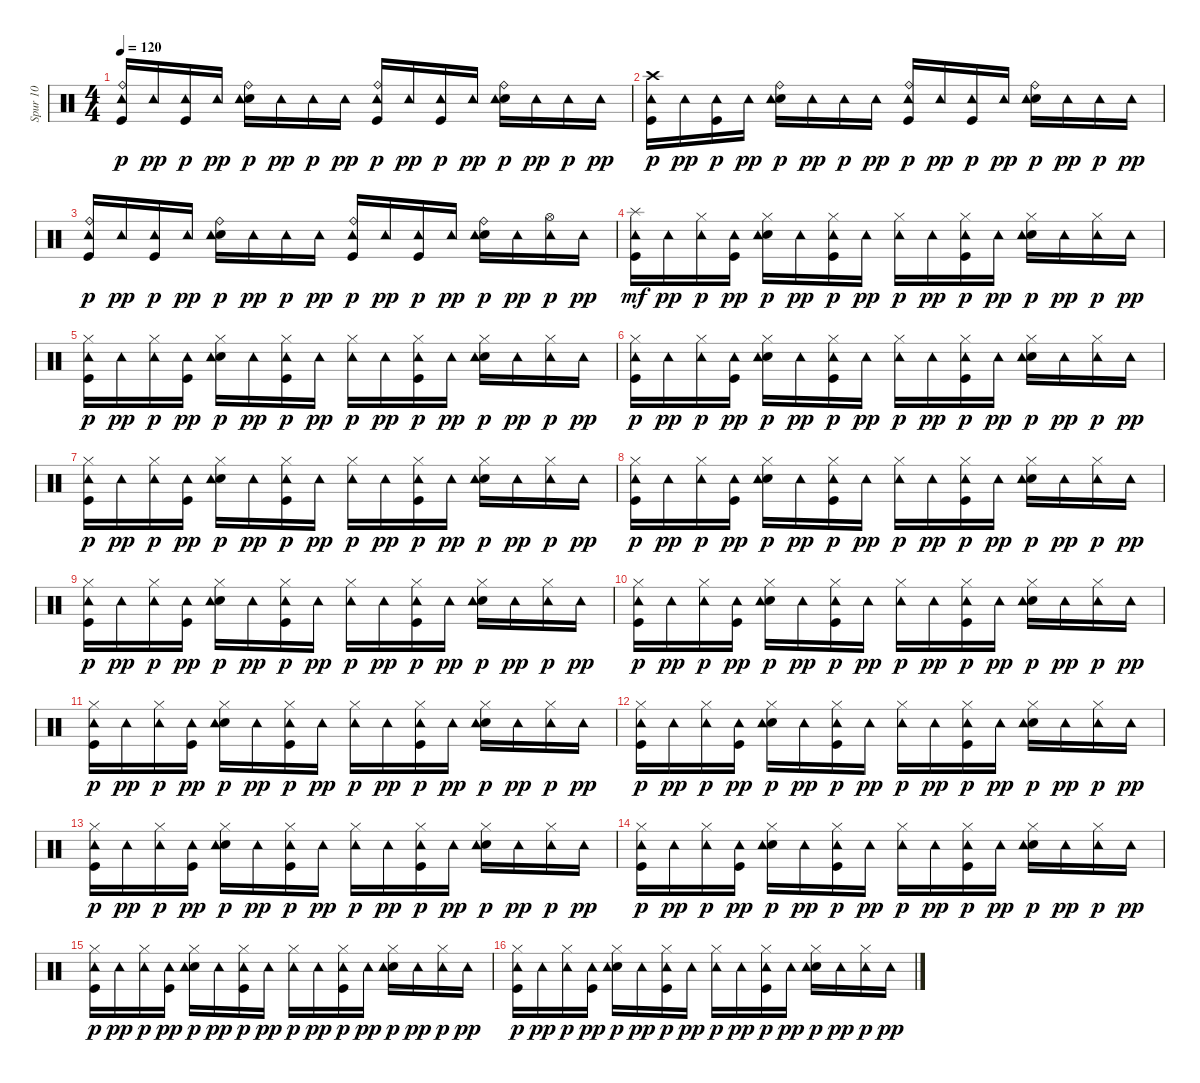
\track ("Spur 10" "Spur 10") {instrument percussion}
\staff {score}
\articulation defaults
\ts (4 4)
\tempo 120
\clef neutral
\ks c
("Kick (hit)" "Ride (bell)" "Tambourine (hit)").16{dy p} "Tambourine (hit)".16{dy pp} ("Kick (hit)" "Tambourine (hit)").16{dy p} "Tambourine (hit)".16{dy pp} ("Electric Snare (hit)" "Ride (bell)" "Tambourine (hit)").16{dy p} "Tambourine (hit)".16{dy pp} "Tambourine (hit)".16{dy p} "Tambourine (hit)".16{dy pp} ("Kick (hit)" "Ride (bell)" "Tambourine (hit)").16{dy p} "Tambourine (hit)".16{dy pp} ("Kick (hit)" "Tambourine (hit)").16{dy p} "Tambourine (hit)".16{dy pp} ("Electric Snare (hit)" "Ride (bell)" "Tambourine (hit)").16{dy p} "Tambourine (hit)".16{dy pp} "Tambourine (hit)".16{dy p} "Tambourine (hit)".16{dy pp} |
("Kick (hit)" "Crash high (hit)" "Tambourine (hit)").16{dy p} "Tambourine (hit)".16{dy pp} ("Kick (hit)" "Tambourine (hit)").16{dy p} "Tambourine (hit)".16{dy pp} ("Electric Snare (hit)" "Ride (bell)" "Tambourine (hit)").16{dy p} "Tambourine (hit)".16{dy pp} "Tambourine (hit)".16{dy p} "Tambourine (hit)".16{dy pp} ("Kick (hit)" "Ride (bell)" "Tambourine (hit)").16{dy p} "Tambourine (hit)".16{dy pp} ("Kick (hit)" "Tambourine (hit)").16{dy p} "Tambourine (hit)".16{dy pp} ("Electric Snare (hit)" "Ride (bell)" "Tambourine (hit)").16{dy p} "Tambourine (hit)".16{dy pp} "Tambourine (hit)".16{dy p} "Tambourine (hit)".16{dy pp} |
("Kick (hit)" "Ride (bell)" "Tambourine (hit)").16{dy p} "Tambourine (hit)".16{dy pp} ("Kick (hit)" "Tambourine (hit)").16{dy p} "Tambourine (hit)".16{dy pp} ("Electric Snare (hit)" "Ride (bell)" "Tambourine (hit)").16{dy p} "Tambourine (hit)".16{dy pp} "Tambourine (hit)".16{dy p} "Tambourine (hit)".16{dy pp} ("Kick (hit)" "Ride (bell)" "Tambourine (hit)").16{dy p} "Tambourine (hit)".16{dy pp} ("Kick (hit)" "Tambourine (hit)").16{dy p} "Tambourine (hit)".16{dy pp} ("Electric Snare (hit)" "Ride (bell)" "Tambourine (hit)").16{dy p} "Tambourine (hit)".16{dy pp} ("Hi-Hat (open)" "Tambourine (hit)").16{dy p} "Tambourine (hit)".16{dy pp} |
("Kick (hit)" "Tambourine (hit)" "Splash (hit)").16{dy mf} "Tambourine (hit)".16{dy pp} ("Hi-Hat (closed)" "Tambourine (hit)").16{dy p} ("Kick (hit)" "Tambourine (hit)").16{dy pp} ("Electric Snare (hit)" "Hi-Hat (closed)" "Tambourine (hit)").16{dy p} "Tambourine (hit)".16{dy pp} ("Kick (hit)" "Hi-Hat (closed)" "Tambourine (hit)").16{dy p} "Tambourine (hit)".16{dy pp} ("Hi-Hat (closed)" "Tambourine (hit)").16{dy p} "Tambourine (hit)".16{dy pp} ("Kick (hit)" "Hi-Hat (closed)" "Tambourine (hit)").16{dy p} "Tambourine (hit)".16{dy pp} ("Electric Snare (hit)" "Hi-Hat (closed)" "Tambourine (hit)").16{dy p} "Tambourine (hit)".16{dy pp} ("Hi-Hat (closed)" "Tambourine (hit)").16{dy p} "Tambourine (hit)".16{dy pp} |
("Kick (hit)" "Hi-Hat (closed)" "Tambourine (hit)").16{dy p} "Tambourine (hit)".16{dy pp} ("Hi-Hat (closed)" "Tambourine (hit)").16{dy p} ("Kick (hit)" "Tambourine (hit)").16{dy pp} ("Electric Snare (hit)" "Hi-Hat (closed)" "Tambourine (hit)").16{dy p} "Tambourine (hit)".16{dy pp} ("Kick (hit)" "Hi-Hat (closed)" "Tambourine (hit)").16{dy p} "Tambourine (hit)".16{dy pp} ("Hi-Hat (closed)" "Tambourine (hit)").16{dy p} "Tambourine (hit)".16{dy pp} ("Kick (hit)" "Hi-Hat (closed)" "Tambourine (hit)").16{dy p} "Tambourine (hit)".16{dy pp} ("Electric Snare (hit)" "Hi-Hat (closed)" "Tambourine (hit)").16{dy p} "Tambourine (hit)".16{dy pp} ("Hi-Hat (closed)" "Tambourine (hit)").16{dy p} "Tambourine (hit)".16{dy pp} |
("Kick (hit)" "Hi-Hat (closed)" "Tambourine (hit)").16{dy p} "Tambourine (hit)".16{dy pp} ("Hi-Hat (closed)" "Tambourine (hit)").16{dy p} ("Kick (hit)" "Tambourine (hit)").16{dy pp} ("Electric Snare (hit)" "Hi-Hat (closed)" "Tambourine (hit)").16{dy p} "Tambourine (hit)".16{dy pp} ("Kick (hit)" "Hi-Hat (closed)" "Tambourine (hit)").16{dy p} "Tambourine (hit)".16{dy pp} ("Hi-Hat (closed)" "Tambourine (hit)").16{dy p} "Tambourine (hit)".16{dy pp} ("Kick (hit)" "Hi-Hat (closed)" "Tambourine (hit)").16{dy p} "Tambourine (hit)".16{dy pp} ("Electric Snare (hit)" "Hi-Hat (closed)" "Tambourine (hit)").16{dy p} "Tambourine (hit)".16{dy pp} ("Hi-Hat (closed)" "Tambourine (hit)").16{dy p} "Tambourine (hit)".16{dy pp} |
("Kick (hit)" "Hi-Hat (closed)" "Tambourine (hit)").16{dy p} "Tambourine (hit)".16{dy pp} ("Hi-Hat (closed)" "Tambourine (hit)").16{dy p} ("Kick (hit)" "Tambourine (hit)").16{dy pp} ("Electric Snare (hit)" "Hi-Hat (closed)" "Tambourine (hit)").16{dy p} "Tambourine (hit)".16{dy pp} ("Kick (hit)" "Hi-Hat (closed)" "Tambourine (hit)").16{dy p} "Tambourine (hit)".16{dy pp} ("Hi-Hat (closed)" "Tambourine (hit)").16{dy p} "Tambourine (hit)".16{dy pp} ("Kick (hit)" "Hi-Hat (closed)" "Tambourine (hit)").16{dy p} "Tambourine (hit)".16{dy pp} ("Electric Snare (hit)" "Hi-Hat (closed)" "Tambourine (hit)").16{dy p} "Tambourine (hit)".16{dy pp} ("Hi-Hat (closed)" "Tambourine (hit)").16{dy p} "Tambourine (hit)".16{dy pp} |
("Kick (hit)" "Hi-Hat (closed)" "Tambourine (hit)").16{dy p} "Tambourine (hit)".16{dy pp} ("Hi-Hat (closed)" "Tambourine (hit)").16{dy p} ("Kick (hit)" "Tambourine (hit)").16{dy pp} ("Electric Snare (hit)" "Hi-Hat (closed)" "Tambourine (hit)").16{dy p} "Tambourine (hit)".16{dy pp} ("Kick (hit)" "Hi-Hat (closed)" "Tambourine (hit)").16{dy p} "Tambourine (hit)".16{dy pp} ("Hi-Hat (closed)" "Tambourine (hit)").16{dy p} "Tambourine (hit)".16{dy pp} ("Kick (hit)" "Hi-Hat (closed)" "Tambourine (hit)").16{dy p} "Tambourine (hit)".16{dy pp} ("Electric Snare (hit)" "Hi-Hat (closed)" "Tambourine (hit)").16{dy p} "Tambourine (hit)".16{dy pp} ("Hi-Hat (closed)" "Tambourine (hit)").16{dy p} "Tambourine (hit)".16{dy pp} |
("Kick (hit)" "Hi-Hat (closed)" "Tambourine (hit)").16{dy p} "Tambourine (hit)".16{dy pp} ("Hi-Hat (closed)" "Tambourine (hit)").16{dy p} ("Kick (hit)" "Tambourine (hit)").16{dy pp} ("Electric Snare (hit)" "Hi-Hat (closed)" "Tambourine (hit)").16{dy p} "Tambourine (hit)".16{dy pp} ("Kick (hit)" "Hi-Hat (closed)" "Tambourine (hit)").16{dy p} "Tambourine (hit)".16{dy pp} ("Hi-Hat (closed)" "Tambourine (hit)").16{dy p} "Tambourine (hit)".16{dy pp} ("Kick (hit)" "Hi-Hat (closed)" "Tambourine (hit)").16{dy p} "Tambourine (hit)".16{dy pp} ("Electric Snare (hit)" "Hi-Hat (closed)" "Tambourine (hit)").16{dy p} "Tambourine (hit)".16{dy pp} ("Hi-Hat (closed)" "Tambourine (hit)").16{dy p} "Tambourine (hit)".16{dy pp} |
("Kick (hit)" "Hi-Hat (closed)" "Tambourine (hit)").16{dy p} "Tambourine (hit)".16{dy pp} ("Hi-Hat (closed)" "Tambourine (hit)").16{dy p} ("Kick (hit)" "Tambourine (hit)").16{dy pp} ("Electric Snare (hit)" "Hi-Hat (closed)" "Tambourine (hit)").16{dy p} "Tambourine (hit)".16{dy pp} ("Kick (hit)" "Hi-Hat (closed)" "Tambourine (hit)").16{dy p} "Tambourine (hit)".16{dy pp} ("Hi-Hat (closed)" "Tambourine (hit)").16{dy p} "Tambourine (hit)".16{dy pp} ("Kick (hit)" "Hi-Hat (closed)" "Tambourine (hit)").16{dy p} "Tambourine (hit)".16{dy pp} ("Electric Snare (hit)" "Hi-Hat (closed)" "Tambourine (hit)").16{dy p} "Tambourine (hit)".16{dy pp} ("Hi-Hat (closed)" "Tambourine (hit)").16{dy p} "Tambourine (hit)".16{dy pp} |
("Kick (hit)" "Hi-Hat (closed)" "Tambourine (hit)").16{dy p} "Tambourine (hit)".16{dy pp} ("Hi-Hat (closed)" "Tambourine (hit)").16{dy p} ("Kick (hit)" "Tambourine (hit)").16{dy pp} ("Electric Snare (hit)" "Hi-Hat (closed)" "Tambourine (hit)").16{dy p} "Tambourine (hit)".16{dy pp} ("Kick (hit)" "Hi-Hat (closed)" "Tambourine (hit)").16{dy p} "Tambourine (hit)".16{dy pp} ("Hi-Hat (closed)" "Tambourine (hit)").16{dy p} "Tambourine (hit)".16{dy pp} ("Kick (hit)" "Hi-Hat (closed)" "Tambourine (hit)").16{dy p} "Tambourine (hit)".16{dy pp} ("Electric Snare (hit)" "Hi-Hat (closed)" "Tambourine (hit)").16{dy p} "Tambourine (hit)".16{dy pp} ("Hi-Hat (closed)" "Tambourine (hit)").16{dy p} "Tambourine (hit)".16{dy pp} |
("Kick (hit)" "Hi-Hat (closed)" "Tambourine (hit)").16{dy p} "Tambourine (hit)".16{dy pp} ("Hi-Hat (closed)" "Tambourine (hit)").16{dy p} ("Kick (hit)" "Tambourine (hit)").16{dy pp} ("Electric Snare (hit)" "Hi-Hat (closed)" "Tambourine (hit)").16{dy p} "Tambourine (hit)".16{dy pp} ("Kick (hit)" "Hi-Hat (closed)" "Tambourine (hit)").16{dy p} "Tambourine (hit)".16{dy pp} ("Hi-Hat (closed)" "Tambourine (hit)").16{dy p} "Tambourine (hit)".16{dy pp} ("Kick (hit)" "Hi-Hat (closed)" "Tambourine (hit)").16{dy p} "Tambourine (hit)".16{dy pp} ("Electric Snare (hit)" "Hi-Hat (closed)" "Tambourine (hit)").16{dy p} "Tambourine (hit)".16{dy pp} ("Hi-Hat (closed)" "Tambourine (hit)").16{dy p} "Tambourine (hit)".16{dy pp} |
("Kick (hit)" "Hi-Hat (closed)" "Tambourine (hit)").16{dy p} "Tambourine (hit)".16{dy pp} ("Hi-Hat (closed)" "Tambourine (hit)").16{dy p} ("Kick (hit)" "Tambourine (hit)").16{dy pp} ("Electric Snare (hit)" "Hi-Hat (closed)" "Tambourine (hit)").16{dy p} "Tambourine (hit)".16{dy pp} ("Kick (hit)" "Hi-Hat (closed)" "Tambourine (hit)").16{dy p} "Tambourine (hit)".16{dy pp} ("Hi-Hat (closed)" "Tambourine (hit)").16{dy p} "Tambourine (hit)".16{dy pp} ("Kick (hit)" "Hi-Hat (closed)" "Tambourine (hit)").16{dy p} "Tambourine (hit)".16{dy pp} ("Electric Snare (hit)" "Hi-Hat (closed)" "Tambourine (hit)").16{dy p} "Tambourine (hit)".16{dy pp} ("Hi-Hat (closed)" "Tambourine (hit)").16{dy p} "Tambourine (hit)".16{dy pp} |
("Kick (hit)" "Hi-Hat (closed)" "Tambourine (hit)").16{dy p} "Tambourine (hit)".16{dy pp} ("Hi-Hat (closed)" "Tambourine (hit)").16{dy p} ("Kick (hit)" "Tambourine (hit)").16{dy pp} ("Electric Snare (hit)" "Hi-Hat (closed)" "Tambourine (hit)").16{dy p} "Tambourine (hit)".16{dy pp} ("Kick (hit)" "Hi-Hat (closed)" "Tambourine (hit)").16{dy p} "Tambourine (hit)".16{dy pp} ("Hi-Hat (closed)" "Tambourine (hit)").16{dy p} "Tambourine (hit)".16{dy pp} ("Kick (hit)" "Hi-Hat (closed)" "Tambourine (hit)").16{dy p} "Tambourine (hit)".16{dy pp} ("Electric Snare (hit)" "Hi-Hat (closed)" "Tambourine (hit)").16{dy p} "Tambourine (hit)".16{dy pp} ("Hi-Hat (closed)" "Tambourine (hit)").16{dy p} "Tambourine (hit)".16{dy pp} |
("Kick (hit)" "Hi-Hat (closed)" "Tambourine (hit)").16{dy p} "Tambourine (hit)".16{dy pp} ("Hi-Hat (closed)" "Tambourine (hit)").16{dy p} ("Kick (hit)" "Tambourine (hit)").16{dy pp} ("Electric Snare (hit)" "Hi-Hat (closed)" "Tambourine (hit)").16{dy p} "Tambourine (hit)".16{dy pp} ("Kick (hit)" "Hi-Hat (closed)" "Tambourine (hit)").16{dy p} "Tambourine (hit)".16{dy pp} ("Hi-Hat (closed)" "Tambourine (hit)").16{dy p} "Tambourine (hit)".16{dy pp} ("Kick (hit)" "Hi-Hat (closed)" "Tambourine (hit)").16{dy p} "Tambourine (hit)".16{dy pp} ("Electric Snare (hit)" "Hi-Hat (closed)" "Tambourine (hit)").16{dy p} "Tambourine (hit)".16{dy pp} ("Hi-Hat (closed)" "Tambourine (hit)").16{dy p} "Tambourine (hit)".16{dy pp} |
("Kick (hit)" "Hi-Hat (closed)" "Tambourine (hit)").16{dy p} "Tambourine (hit)".16{dy pp} ("Hi-Hat (closed)" "Tambourine (hit)").16{dy p} ("Kick (hit)" "Tambourine (hit)").16{dy pp} ("Electric Snare (hit)" "Hi-Hat (closed)" "Tambourine (hit)").16{dy p} "Tambourine (hit)".16{dy pp} ("Kick (hit)" "Hi-Hat (closed)" "Tambourine (hit)").16{dy p} "Tambourine (hit)".16{dy pp} ("Hi-Hat (closed)" "Tambourine (hit)").16{dy p} "Tambourine (hit)".16{dy pp} ("Kick (hit)" "Hi-Hat (closed)" "Tambourine (hit)").16{dy p} "Tambourine (hit)".16{dy pp} ("Electric Snare (hit)" "Hi-Hat (closed)" "Tambourine (hit)").16{dy p} "Tambourine (hit)".16{dy pp} ("Hi-Hat (closed)" "Tambourine (hit)").16{dy p} "Tambourine (hit)".16{dy pp}
